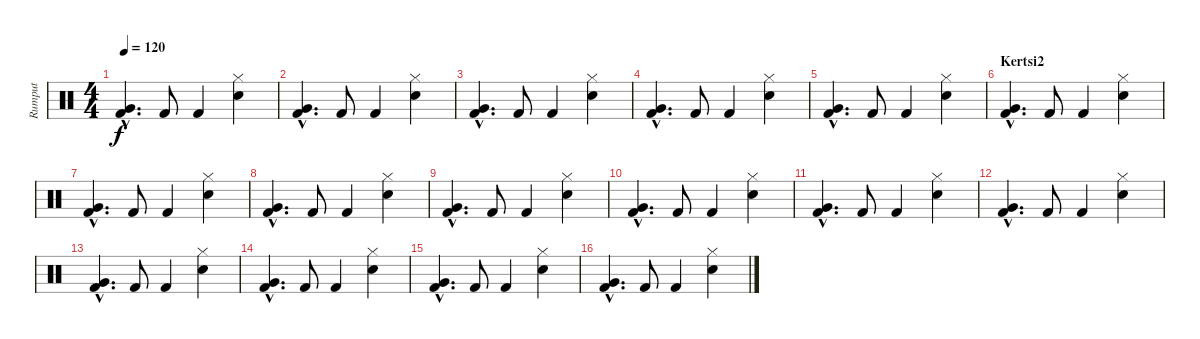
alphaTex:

\track ("Rumput" "Rumput") {instrument percussion}
\staff {score}
\articulation defaults
\ts (4 4)
\tempo 120
\clef neutral
\ks c
("Very Low Tom (hit)"{hac} "Kick (hit) 2"{hac}).4{d dy f} "Kick (hit) 2".8 "Kick (hit) 2".4 ("Hi-Hat (closed)" "Snare (hit) 2").4 |
("Very Low Tom (hit)"{hac} "Kick (hit) 2"{hac}).4{d} "Kick (hit) 2".8 "Kick (hit) 2".4 ("Hi-Hat (closed)" "Snare (hit) 2").4 |
("Very Low Tom (hit)"{hac} "Kick (hit) 2"{hac}).4{d} "Kick (hit) 2".8 "Kick (hit) 2".4 ("Hi-Hat (closed)" "Snare (hit) 2").4 |
("Very Low Tom (hit)"{hac} "Kick (hit) 2"{hac}).4{d} "Kick (hit) 2".8 "Kick (hit) 2".4 ("Hi-Hat (closed)" "Snare (hit) 2").4 |
("Very Low Tom (hit)"{hac} "Kick (hit) 2"{hac}).4{d} "Kick (hit) 2".8 "Kick (hit) 2".4 ("Hi-Hat (closed)" "Snare (hit) 2").4 |
\section ("" "Kertsi2")
("Very Low Tom (hit)"{hac} "Kick (hit) 2"{hac}).4{d} "Kick (hit) 2".8 "Kick (hit) 2".4 ("Hi-Hat (closed)" "Snare (hit) 2").4 |
("Very Low Tom (hit)"{hac} "Kick (hit) 2"{hac}).4{d} "Kick (hit) 2".8 "Kick (hit) 2".4 ("Hi-Hat (closed)" "Snare (hit) 2").4 |
("Very Low Tom (hit)"{hac} "Kick (hit) 2"{hac}).4{d} "Kick (hit) 2".8 "Kick (hit) 2".4 ("Hi-Hat (closed)" "Snare (hit) 2").4 |
("Very Low Tom (hit)"{hac} "Kick (hit) 2"{hac}).4{d} "Kick (hit) 2".8 "Kick (hit) 2".4 ("Hi-Hat (closed)" "Snare (hit) 2").4 |
("Very Low Tom (hit)"{hac} "Kick (hit) 2"{hac}).4{d} "Kick (hit) 2".8 "Kick (hit) 2".4 ("Hi-Hat (closed)" "Snare (hit) 2").4 |
("Very Low Tom (hit)"{hac} "Kick (hit) 2"{hac}).4{d} "Kick (hit) 2".8 "Kick (hit) 2".4 ("Hi-Hat (closed)" "Snare (hit) 2").4 |
("Very Low Tom (hit)"{hac} "Kick (hit) 2"{hac}).4{d} "Kick (hit) 2".8 "Kick (hit) 2".4 ("Hi-Hat (closed)" "Snare (hit) 2").4 |
("Very Low Tom (hit)"{hac} "Kick (hit) 2"{hac}).4{d} "Kick (hit) 2".8 "Kick (hit) 2".4 ("Hi-Hat (closed)" "Snare (hit) 2").4 |
("Very Low Tom (hit)"{hac} "Kick (hit) 2"{hac}).4{d} "Kick (hit) 2".8 "Kick (hit) 2".4 ("Hi-Hat (closed)" "Snare (hit) 2").4 |
("Very Low Tom (hit)"{hac} "Kick (hit) 2"{hac}).4{d} "Kick (hit) 2".8 "Kick (hit) 2".4 ("Hi-Hat (closed)" "Snare (hit) 2").4 |
("Very Low Tom (hit)"{hac} "Kick (hit) 2"{hac}).4{d} "Kick (hit) 2".8 "Kick (hit) 2".4 ("Hi-Hat (closed)" "Snare (hit) 2").4
